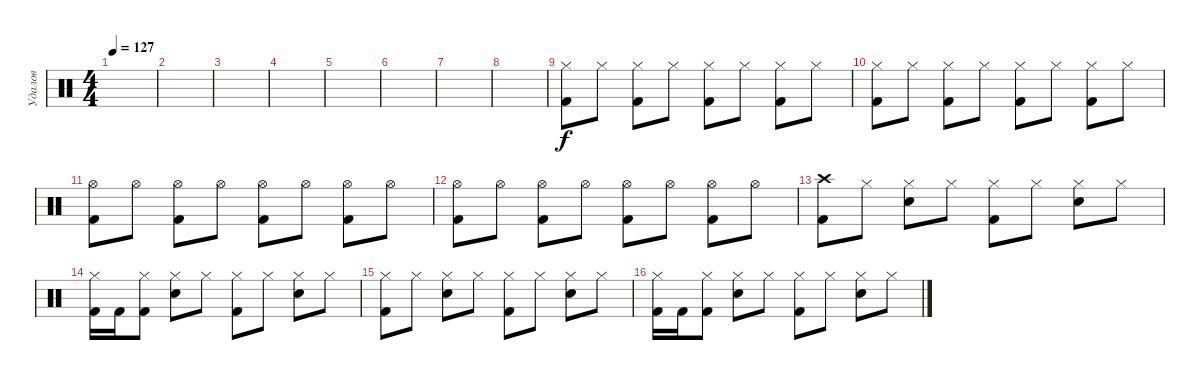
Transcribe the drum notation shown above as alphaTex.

\track ("Удалов" "Удалов") {instrument percussion}
\staff {score}
\articulation defaults
\ts (4 4)
\tempo 127
\clef neutral
\ks c
|
|
|
|
|
|
|
|
("Hi-Hat (closed)" "Kick (hit) 2").8 "Hi-Hat (closed)".8 ("Hi-Hat (closed)" "Kick (hit) 2").8 "Hi-Hat (closed)".8 ("Hi-Hat (closed)" "Kick (hit) 2").8 "Hi-Hat (closed)".8 ("Hi-Hat (closed)" "Kick (hit) 2").8 "Hi-Hat (closed)".8 |
("Hi-Hat (closed)" "Kick (hit) 2").8 "Hi-Hat (closed)".8 ("Hi-Hat (closed)" "Kick (hit) 2").8 "Hi-Hat (closed)".8 ("Hi-Hat (closed)" "Kick (hit) 2").8 "Hi-Hat (closed)".8 ("Hi-Hat (closed)" "Kick (hit) 2").8 "Hi-Hat (closed)".8 |
("Hi-Hat (open)" "Kick (hit) 2").8 "Hi-Hat (open)".8 ("Hi-Hat (open)" "Kick (hit) 2").8 "Hi-Hat (open)".8 ("Hi-Hat (open)" "Kick (hit) 2").8 "Hi-Hat (open)".8 ("Hi-Hat (open)" "Kick (hit) 2").8 "Hi-Hat (open)".8 |
("Hi-Hat (open)" "Kick (hit) 2").8 "Hi-Hat (open)".8 ("Hi-Hat (open)" "Kick (hit) 2").8 "Hi-Hat (open)".8 ("Hi-Hat (open)" "Kick (hit) 2").8 "Hi-Hat (open)".8 ("Hi-Hat (open)" "Kick (hit) 2").8 "Hi-Hat (open)".8 |
("Crash high (hit)" "Kick (hit) 2").8 "Hi-Hat (closed)".8 ("Hi-Hat (closed)" "Snare (hit) 2").8 "Hi-Hat (closed)".8 ("Hi-Hat (closed)" "Kick (hit) 2").8 "Hi-Hat (closed)".8 ("Hi-Hat (closed)" "Snare (hit) 2").8 "Hi-Hat (closed)".8 |
("Hi-Hat (closed)" "Kick (hit) 2").16 "Kick (hit) 2".16 ("Hi-Hat (closed)" "Kick (hit) 2").8 ("Hi-Hat (closed)" "Snare (hit) 2").8 "Hi-Hat (closed)".8 ("Hi-Hat (closed)" "Kick (hit) 2").8 "Hi-Hat (closed)".8 ("Hi-Hat (closed)" "Snare (hit) 2").8 "Hi-Hat (closed)".8 |
("Hi-Hat (closed)" "Kick (hit) 2").8 "Hi-Hat (closed)".8 ("Hi-Hat (closed)" "Snare (hit) 2").8 "Hi-Hat (closed)".8 ("Hi-Hat (closed)" "Kick (hit) 2").8 "Hi-Hat (closed)".8 ("Hi-Hat (closed)" "Snare (hit) 2").8 "Hi-Hat (closed)".8 |
("Hi-Hat (closed)" "Kick (hit) 2").16 "Kick (hit) 2".16 ("Hi-Hat (closed)" "Kick (hit) 2").8 ("Hi-Hat (closed)" "Snare (hit) 2").8 "Hi-Hat (closed)".8 ("Hi-Hat (closed)" "Kick (hit) 2").8 "Hi-Hat (closed)".8 ("Hi-Hat (closed)" "Snare (hit) 2").8 "Hi-Hat (closed)".8
